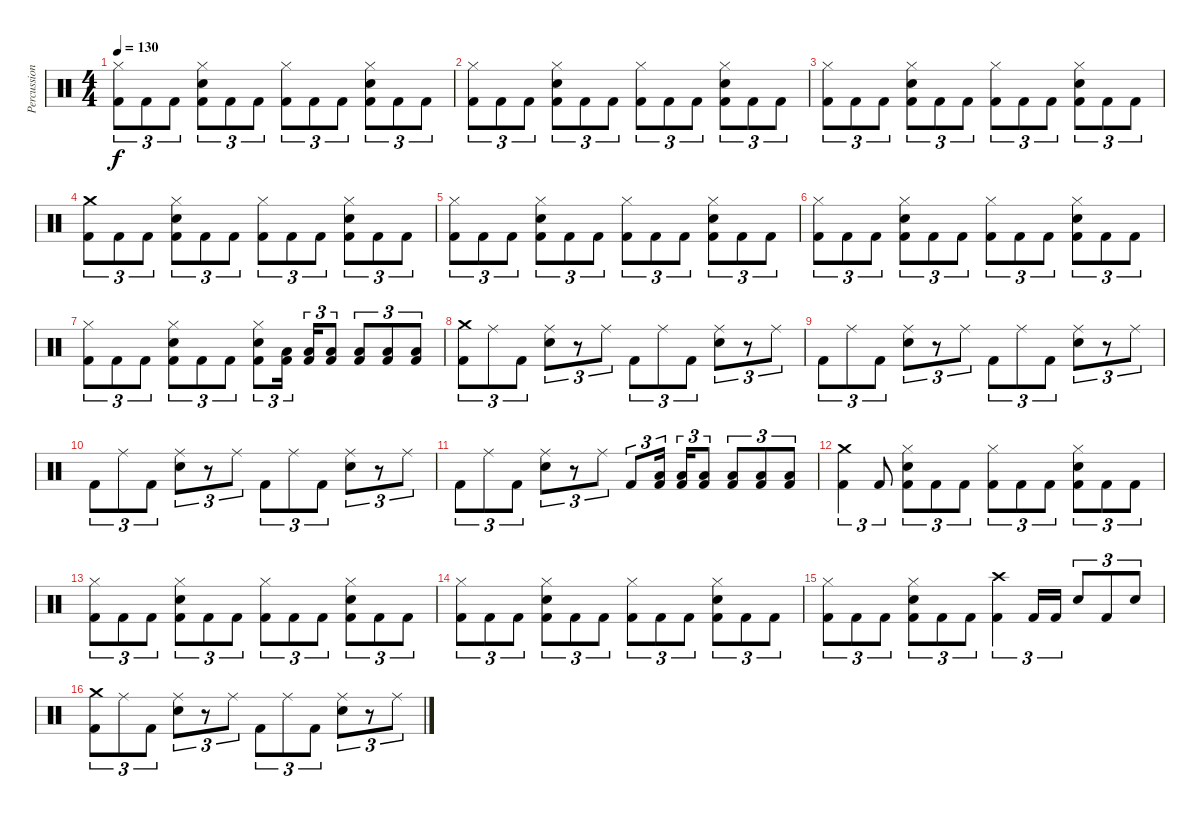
\track ("Percussions" "Percussion") {instrument percussion}
\staff {score}
\articulation defaults
\ts (4 4)
\tempo 130
\clef neutral
\ks c
("Hi-Hat (closed)" "Kick (hit) 2").8{tu (3 2) dy f} "Kick (hit) 2".8{tu (3 2)} "Kick (hit) 2".8{tu (3 2)} ("Hi-Hat (closed)" "Electric Snare (hit)" "Kick (hit) 2").8{tu (3 2)} "Kick (hit) 2".8{tu (3 2)} "Kick (hit) 2".8{tu (3 2)} ("Hi-Hat (closed)" "Kick (hit) 2").8{tu (3 2)} "Kick (hit) 2".8{tu (3 2)} "Kick (hit) 2".8{tu (3 2)} ("Hi-Hat (closed)" "Electric Snare (hit)" "Kick (hit) 2").8{tu (3 2)} "Kick (hit) 2".8{tu (3 2)} "Kick (hit) 2".8{tu (3 2)} |
("Hi-Hat (closed)" "Kick (hit) 2").8{tu (3 2)} "Kick (hit) 2".8{tu (3 2)} "Kick (hit) 2".8{tu (3 2)} ("Hi-Hat (closed)" "Electric Snare (hit)" "Kick (hit) 2").8{tu (3 2)} "Kick (hit) 2".8{tu (3 2)} "Kick (hit) 2".8{tu (3 2)} ("Hi-Hat (closed)" "Kick (hit) 2").8{tu (3 2)} "Kick (hit) 2".8{tu (3 2)} "Kick (hit) 2".8{tu (3 2)} ("Hi-Hat (closed)" "Electric Snare (hit)" "Kick (hit) 2").8{tu (3 2)} "Kick (hit) 2".8{tu (3 2)} "Kick (hit) 2".8{tu (3 2)} |
("Hi-Hat (closed)" "Kick (hit) 2").8{tu (3 2)} "Kick (hit) 2".8{tu (3 2)} "Kick (hit) 2".8{tu (3 2)} ("Hi-Hat (closed)" "Electric Snare (hit)" "Kick (hit) 2").8{tu (3 2)} "Kick (hit) 2".8{tu (3 2)} "Kick (hit) 2".8{tu (3 2)} ("Hi-Hat (closed)" "Kick (hit) 2").8{tu (3 2)} "Kick (hit) 2".8{tu (3 2)} "Kick (hit) 2".8{tu (3 2)} ("Hi-Hat (closed)" "Electric Snare (hit)" "Kick (hit) 2").8{tu (3 2)} "Kick (hit) 2".8{tu (3 2)} "Kick (hit) 2".8{tu (3 2)} |
("Crash medium (hit)" "Kick (hit) 2").8{tu (3 2)} "Kick (hit) 2".8{tu (3 2)} "Kick (hit) 2".8{tu (3 2)} ("Hi-Hat (closed)" "Electric Snare (hit)" "Kick (hit) 2").8{tu (3 2)} "Kick (hit) 2".8{tu (3 2)} "Kick (hit) 2".8{tu (3 2)} ("Hi-Hat (closed)" "Kick (hit) 2").8{tu (3 2)} "Kick (hit) 2".8{tu (3 2)} "Kick (hit) 2".8{tu (3 2)} ("Hi-Hat (closed)" "Electric Snare (hit)" "Kick (hit) 2").8{tu (3 2)} "Kick (hit) 2".8{tu (3 2)} "Kick (hit) 2".8{tu (3 2)} |
("Hi-Hat (closed)" "Kick (hit) 2").8{tu (3 2)} "Kick (hit) 2".8{tu (3 2)} "Kick (hit) 2".8{tu (3 2)} ("Hi-Hat (closed)" "Electric Snare (hit)" "Kick (hit) 2").8{tu (3 2)} "Kick (hit) 2".8{tu (3 2)} "Kick (hit) 2".8{tu (3 2)} ("Hi-Hat (closed)" "Kick (hit) 2").8{tu (3 2)} "Kick (hit) 2".8{tu (3 2)} "Kick (hit) 2".8{tu (3 2)} ("Hi-Hat (closed)" "Electric Snare (hit)" "Kick (hit) 2").8{tu (3 2)} "Kick (hit) 2".8{tu (3 2)} "Kick (hit) 2".8{tu (3 2)} |
("Hi-Hat (closed)" "Kick (hit) 2").8{tu (3 2)} "Kick (hit) 2".8{tu (3 2)} "Kick (hit) 2".8{tu (3 2)} ("Hi-Hat (closed)" "Electric Snare (hit)" "Kick (hit) 2").8{tu (3 2)} "Kick (hit) 2".8{tu (3 2)} "Kick (hit) 2".8{tu (3 2)} ("Hi-Hat (closed)" "Kick (hit) 2").8{tu (3 2)} "Kick (hit) 2".8{tu (3 2)} "Kick (hit) 2".8{tu (3 2)} ("Hi-Hat (closed)" "Electric Snare (hit)" "Kick (hit) 2").8{tu (3 2)} "Kick (hit) 2".8{tu (3 2)} "Kick (hit) 2".8{tu (3 2)} |
("Hi-Hat (closed)" "Kick (hit) 2").8{tu (3 2)} "Kick (hit) 2".8{tu (3 2)} "Kick (hit) 2".8{tu (3 2)} ("Hi-Hat (closed)" "Electric Snare (hit)" "Kick (hit) 2").8{tu (3 2)} "Kick (hit) 2".8{tu (3 2)} "Kick (hit) 2".8{tu (3 2)} ("Hi-Hat (closed)" "Electric Snare (hit)" "Kick (hit) 2").8{tu (3 2)} ("Low Tom (hit)" "Kick (hit) 2").16{tu (3 2) beam splitsecondary} ("Low Tom (hit)" "Kick (hit) 2").16{tu (3 2)} ("Low Tom (hit)" "Kick (hit) 2").8{tu (3 2)} ("Low Tom (hit)" "Kick (hit) 2").8{tu (3 2)} ("Low Tom (hit)" "Kick (hit) 2").8{tu (3 2)} ("Low Tom (hit)" "Kick (hit) 2").8{tu (3 2)} |
("Crash medium (hit)" "Kick (hit) 2").8{tu (3 2)} "Ride (middle)".8{tu (3 2)} "Kick (hit) 2".8{tu (3 2)} ("Ride (middle)" "Electric Snare (hit)").8{tu (3 2)} r.8{tu (3 2)} "Ride (middle)".8{tu (3 2)} "Kick (hit) 2".8{tu (3 2)} "Ride (middle)".8{tu (3 2)} "Kick (hit) 2".8{tu (3 2)} ("Ride (middle)" "Electric Snare (hit)").8{tu (3 2)} r.8{tu (3 2)} "Ride (middle)".8{tu (3 2)} |
"Kick (hit) 2".8{tu (3 2)} "Ride (middle)".8{tu (3 2)} "Kick (hit) 2".8{tu (3 2)} ("Ride (middle)" "Electric Snare (hit)").8{tu (3 2)} r.8{tu (3 2)} "Ride (middle)".8{tu (3 2)} "Kick (hit) 2".8{tu (3 2)} "Ride (middle)".8{tu (3 2)} "Kick (hit) 2".8{tu (3 2)} ("Ride (middle)" "Electric Snare (hit)").8{tu (3 2)} r.8{tu (3 2)} "Ride (middle)".8{tu (3 2)} |
"Kick (hit) 2".8{tu (3 2)} "Ride (middle)".8{tu (3 2)} "Kick (hit) 2".8{tu (3 2)} ("Ride (middle)" "Electric Snare (hit)").8{tu (3 2)} r.8{tu (3 2)} "Ride (middle)".8{tu (3 2)} "Kick (hit) 2".8{tu (3 2)} "Ride (middle)".8{tu (3 2)} "Kick (hit) 2".8{tu (3 2)} ("Ride (middle)" "Electric Snare (hit)").8{tu (3 2)} r.8{tu (3 2)} "Ride (middle)".8{tu (3 2)} |
"Kick (hit) 2".8{tu (3 2)} "Ride (middle)".8{tu (3 2)} "Kick (hit) 2".8{tu (3 2)} ("Ride (middle)" "Electric Snare (hit)").8{tu (3 2)} r.8{tu (3 2)} "Ride (middle)".8{tu (3 2)} "Kick (hit) 2".8{tu (3 2)} ("Low Tom (hit)" "Kick (hit) 2").16{tu (3 2) beam splitsecondary} ("Low Tom (hit)" "Kick (hit) 2").16{tu (3 2)} ("Low Tom (hit)" "Kick (hit) 2").8{tu (3 2)} ("Low Tom (hit)" "Kick (hit) 2").8{tu (3 2)} ("Low Tom (hit)" "Kick (hit) 2").8{tu (3 2)} ("Low Tom (hit)" "Kick (hit) 2").8{tu (3 2)} |
("Crash medium (hit)" "Kick (hit) 2").4{tu (3 2)} "Kick (hit) 2".8{tu (3 2)} ("Hi-Hat (closed)" "Electric Snare (hit)" "Kick (hit) 2").8{tu (3 2)} "Kick (hit) 2".8{tu (3 2)} "Kick (hit) 2".8{tu (3 2)} ("Hi-Hat (closed)" "Kick (hit) 2").8{tu (3 2)} "Kick (hit) 2".8{tu (3 2)} "Kick (hit) 2".8{tu (3 2)} ("Hi-Hat (closed)" "Electric Snare (hit)" "Kick (hit) 2").8{tu (3 2)} "Kick (hit) 2".8{tu (3 2)} "Kick (hit) 2".8{tu (3 2)} |
("Hi-Hat (closed)" "Kick (hit) 2").8{tu (3 2)} "Kick (hit) 2".8{tu (3 2)} "Kick (hit) 2".8{tu (3 2)} ("Hi-Hat (closed)" "Electric Snare (hit)" "Kick (hit) 2").8{tu (3 2)} "Kick (hit) 2".8{tu (3 2)} "Kick (hit) 2".8{tu (3 2)} ("Hi-Hat (closed)" "Kick (hit) 2").8{tu (3 2)} "Kick (hit) 2".8{tu (3 2)} "Kick (hit) 2".8{tu (3 2)} ("Hi-Hat (closed)" "Electric Snare (hit)" "Kick (hit) 2").8{tu (3 2)} "Kick (hit) 2".8{tu (3 2)} "Kick (hit) 2".8{tu (3 2)} |
("Hi-Hat (closed)" "Kick (hit) 2").8{tu (3 2)} "Kick (hit) 2".8{tu (3 2)} "Kick (hit) 2".8{tu (3 2)} ("Hi-Hat (closed)" "Electric Snare (hit)" "Kick (hit) 2").8{tu (3 2)} "Kick (hit) 2".8{tu (3 2)} "Kick (hit) 2".8{tu (3 2)} ("Hi-Hat (closed)" "Kick (hit) 2").8{tu (3 2)} "Kick (hit) 2".8{tu (3 2)} "Kick (hit) 2".8{tu (3 2)} ("Hi-Hat (closed)" "Electric Snare (hit)" "Kick (hit) 2").8{tu (3 2)} "Kick (hit) 2".8{tu (3 2)} "Kick (hit) 2".8{tu (3 2)} |
("Hi-Hat (closed)" "Kick (hit) 2").8{tu (3 2)} "Kick (hit) 2".8{tu (3 2)} "Kick (hit) 2".8{tu (3 2)} ("Hi-Hat (closed)" "Electric Snare (hit)" "Kick (hit) 2").8{tu (3 2)} "Kick (hit) 2".8{tu (3 2)} "Kick (hit) 2".8{tu (3 2)} ("Crash high (hit)" "Kick (hit) 2").4{tu (3 2)} "Kick (hit) 2".16{tu (3 2)} "Kick (hit) 2".16{tu (3 2)} "Electric Snare (hit)".8{tu (3 2)} "Kick (hit) 2".8{tu (3 2)} "Electric Snare (hit)".8{tu (3 2)} |
("Crash medium (hit)" "Kick (hit) 2").8{tu (3 2)} "Ride (middle)".8{tu (3 2)} "Kick (hit) 2".8{tu (3 2)} ("Ride (middle)" "Electric Snare (hit)").8{tu (3 2)} r.8{tu (3 2)} "Ride (middle)".8{tu (3 2)} "Kick (hit) 2".8{tu (3 2)} "Ride (middle)".8{tu (3 2)} "Kick (hit) 2".8{tu (3 2)} ("Ride (middle)" "Electric Snare (hit)").8{tu (3 2)} r.8{tu (3 2)} "Ride (middle)".8{tu (3 2)}
